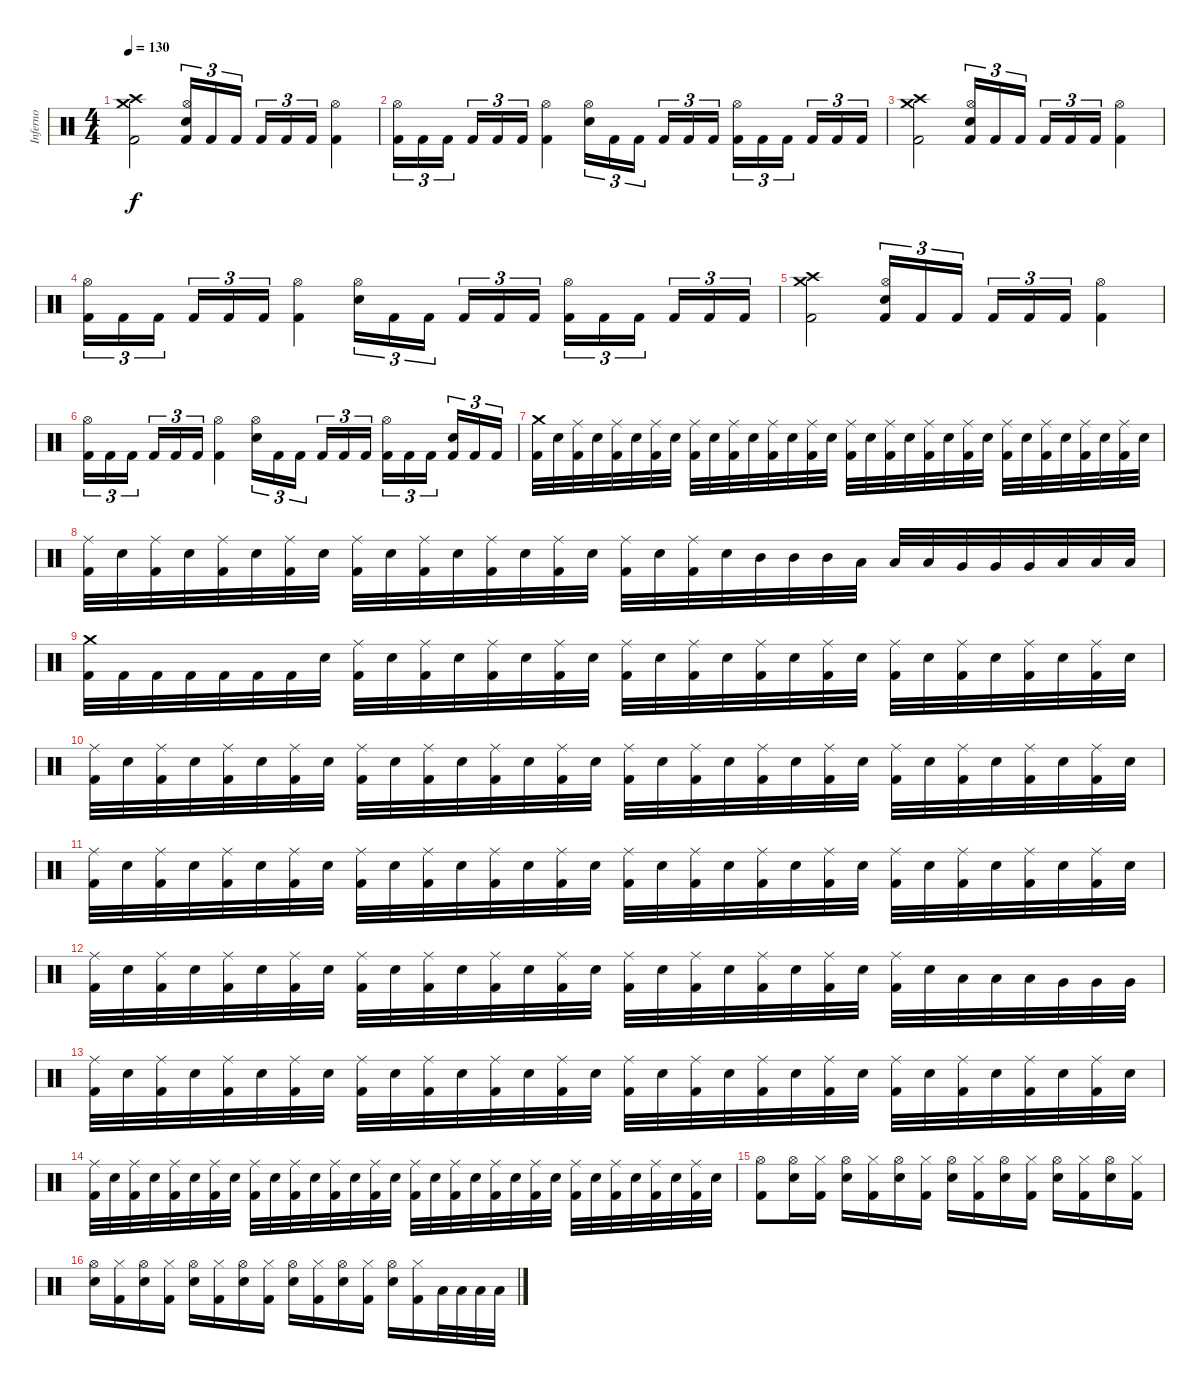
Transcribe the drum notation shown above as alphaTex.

\track ("Inferno" "Inferno") {instrument percussion}
\staff {score}
\articulation defaults
\ts (4 4)
\tempo 130
\clef neutral
\ks c
("Crash medium (hit)" "Crash high (hit)" "Kick (hit) 2").2{dy f} ("Hi-Hat (open)" "Snare (hit) 2" "Kick (hit) 2").16{tu (3 2)} "Kick (hit) 2".16{tu (3 2)} "Kick (hit) 2".16{tu (3 2) beam splitsecondary} "Kick (hit) 2".16{tu (3 2)} "Kick (hit) 2".16{tu (3 2)} "Kick (hit) 2".16{tu (3 2)} ("Hi-Hat (open)" "Kick (hit) 2").4 |
("Hi-Hat (open)" "Kick (hit) 2").16{tu (3 2)} "Kick (hit) 2".16{tu (3 2)} "Kick (hit) 2".16{tu (3 2) beam splitsecondary} "Kick (hit) 2".16{tu (3 2)} "Kick (hit) 2".16{tu (3 2)} "Kick (hit) 2".16{tu (3 2)} ("Hi-Hat (open)" "Kick (hit) 2").4 ("Hi-Hat (open)" "Snare (hit) 2").16{tu (3 2)} "Kick (hit) 2".16{tu (3 2)} "Kick (hit) 2".16{tu (3 2) beam splitsecondary} "Kick (hit) 2".16{tu (3 2)} "Kick (hit) 2".16{tu (3 2)} "Kick (hit) 2".16{tu (3 2)} ("Hi-Hat (open)" "Kick (hit) 2").16{tu (3 2)} "Kick (hit) 2".16{tu (3 2)} "Kick (hit) 2".16{tu (3 2) beam splitsecondary} "Kick (hit) 2".16{tu (3 2)} "Kick (hit) 2".16{tu (3 2)} "Kick (hit) 2".16{tu (3 2)} |
("Crash medium (hit)" "Crash high (hit)" "Kick (hit) 2").2 ("Hi-Hat (open)" "Snare (hit) 2" "Kick (hit) 2").16{tu (3 2)} "Kick (hit) 2".16{tu (3 2)} "Kick (hit) 2".16{tu (3 2) beam splitsecondary} "Kick (hit) 2".16{tu (3 2)} "Kick (hit) 2".16{tu (3 2)} "Kick (hit) 2".16{tu (3 2)} ("Hi-Hat (open)" "Kick (hit) 2").4 |
("Hi-Hat (open)" "Kick (hit) 2").16{tu (3 2)} "Kick (hit) 2".16{tu (3 2)} "Kick (hit) 2".16{tu (3 2) beam splitsecondary} "Kick (hit) 2".16{tu (3 2)} "Kick (hit) 2".16{tu (3 2)} "Kick (hit) 2".16{tu (3 2)} ("Hi-Hat (open)" "Kick (hit) 2").4 ("Hi-Hat (open)" "Snare (hit) 2").16{tu (3 2)} "Kick (hit) 2".16{tu (3 2)} "Kick (hit) 2".16{tu (3 2) beam splitsecondary} "Kick (hit) 2".16{tu (3 2)} "Kick (hit) 2".16{tu (3 2)} "Kick (hit) 2".16{tu (3 2)} ("Hi-Hat (open)" "Kick (hit) 2").16{tu (3 2)} "Kick (hit) 2".16{tu (3 2)} "Kick (hit) 2".16{tu (3 2) beam splitsecondary} "Kick (hit) 2".16{tu (3 2)} "Kick (hit) 2".16{tu (3 2)} "Kick (hit) 2".16{tu (3 2)} |
("Crash medium (hit)" "Crash high (hit)" "Kick (hit) 2").2 ("Hi-Hat (open)" "Snare (hit) 2" "Kick (hit) 2").16{tu (3 2)} "Kick (hit) 2".16{tu (3 2)} "Kick (hit) 2".16{tu (3 2) beam splitsecondary} "Kick (hit) 2".16{tu (3 2)} "Kick (hit) 2".16{tu (3 2)} "Kick (hit) 2".16{tu (3 2)} ("Hi-Hat (open)" "Kick (hit) 2").4 |
("Hi-Hat (open)" "Kick (hit) 2").16{tu (3 2)} "Kick (hit) 2".16{tu (3 2)} "Kick (hit) 2".16{tu (3 2) beam splitsecondary} "Kick (hit) 2".16{tu (3 2)} "Kick (hit) 2".16{tu (3 2)} "Kick (hit) 2".16{tu (3 2)} ("Hi-Hat (open)" "Kick (hit) 2").4 ("Hi-Hat (open)" "Snare (hit) 2").16{tu (3 2)} "Kick (hit) 2".16{tu (3 2)} "Kick (hit) 2".16{tu (3 2) beam splitsecondary} "Kick (hit) 2".16{tu (3 2)} "Kick (hit) 2".16{tu (3 2)} "Kick (hit) 2".16{tu (3 2)} ("Hi-Hat (open)" "Kick (hit) 2").16{tu (3 2)} "Kick (hit) 2".16{tu (3 2)} "Kick (hit) 2".16{tu (3 2) beam splitsecondary} ("Snare (hit) 2" "Kick (hit) 2").16{tu (3 2)} "Kick (hit) 2".16{tu (3 2)} "Kick (hit) 2".16{tu (3 2)} |
("Crash medium (hit)" "Kick (hit) 2").32 "Snare (hit) 2".32 ("Ride (middle)" "Kick (hit) 2").32 "Snare (hit) 2".32 ("Ride (middle)" "Kick (hit) 2").32 "Snare (hit) 2".32 ("Ride (middle)" "Kick (hit) 2").32 "Snare (hit) 2".32 ("Ride (middle)" "Kick (hit) 2").32 "Snare (hit) 2".32 ("Ride (middle)" "Kick (hit) 2").32 "Snare (hit) 2".32 ("Ride (middle)" "Kick (hit) 2").32 "Snare (hit) 2".32 ("Ride (middle)" "Kick (hit) 2").32 "Snare (hit) 2".32 ("Ride (middle)" "Kick (hit) 2").32 "Snare (hit) 2".32 ("Ride (middle)" "Kick (hit) 2").32 "Snare (hit) 2".32 ("Ride (middle)" "Kick (hit) 2").32 "Snare (hit) 2".32 ("Ride (middle)" "Kick (hit) 2").32 "Snare (hit) 2".32 ("Ride (middle)" "Kick (hit) 2").32 "Snare (hit) 2".32 ("Ride (middle)" "Kick (hit) 2").32 "Snare (hit) 2".32 ("Ride (middle)" "Kick (hit) 2").32 "Snare (hit) 2".32 ("Ride (middle)" "Kick (hit) 2").32 "Snare (hit) 2".32 |
("Ride (middle)" "Kick (hit) 2").32 "Snare (hit) 2".32 ("Ride (middle)" "Kick (hit) 2").32 "Snare (hit) 2".32 ("Ride (middle)" "Kick (hit) 2").32 "Snare (hit) 2".32 ("Ride (middle)" "Kick (hit) 2").32 "Snare (hit) 2".32 ("Ride (middle)" "Kick (hit) 2").32 "Snare (hit) 2".32 ("Ride (middle)" "Kick (hit) 2").32 "Snare (hit) 2".32 ("Ride (middle)" "Kick (hit) 2").32 "Snare (hit) 2".32 ("Ride (middle)" "Kick (hit) 2").32 "Snare (hit) 2".32 ("Ride (middle)" "Kick (hit) 2").32 "Snare (hit) 2".32 ("Ride (middle)" "Kick (hit) 2").32 "Snare (hit) 2".32 "Mid Tom (hit)".32 "Mid Tom (hit)".32 "Mid Tom (hit)".32 "Low Tom (hit)".32 "Low Tom (hit)".32 "Low Tom (hit)".32 "Very Low Tom (hit)".32 "Very Low Tom (hit)".32 "Very Low Tom (hit)".32 "Low Floor Tom (hit)".32 "Low Floor Tom (hit)".32 "Low Floor Tom (hit)".32 |
("Crash medium (hit)" "Kick (hit) 2").32 "Kick (hit) 2".32 "Kick (hit) 2".32 "Kick (hit) 2".32 "Kick (hit) 2".32 "Kick (hit) 2".32 "Kick (hit) 2".32 "Snare (hit) 2".32 ("Ride (middle)" "Kick (hit) 2").32 "Snare (hit) 2".32 ("Ride (middle)" "Kick (hit) 2").32 "Snare (hit) 2".32 ("Ride (middle)" "Kick (hit) 2").32 "Snare (hit) 2".32 ("Ride (middle)" "Kick (hit) 2").32 "Snare (hit) 2".32 ("Ride (middle)" "Kick (hit) 2").32 "Snare (hit) 2".32 ("Ride (middle)" "Kick (hit) 2").32 "Snare (hit) 2".32 ("Ride (middle)" "Kick (hit) 2").32 "Snare (hit) 2".32 ("Ride (middle)" "Kick (hit) 2").32 "Snare (hit) 2".32 ("Ride (middle)" "Kick (hit) 2").32 "Snare (hit) 2".32 ("Ride (middle)" "Kick (hit) 2").32 "Snare (hit) 2".32 ("Ride (middle)" "Kick (hit) 2").32 "Snare (hit) 2".32 ("Ride (middle)" "Kick (hit) 2").32 "Snare (hit) 2".32 |
("Ride (middle)" "Kick (hit) 2").32 "Snare (hit) 2".32 ("Ride (middle)" "Kick (hit) 2").32 "Snare (hit) 2".32 ("Ride (middle)" "Kick (hit) 2").32 "Snare (hit) 2".32 ("Ride (middle)" "Kick (hit) 2").32 "Snare (hit) 2".32 ("Ride (middle)" "Kick (hit) 2").32 "Snare (hit) 2".32 ("Ride (middle)" "Kick (hit) 2").32 "Snare (hit) 2".32 ("Ride (middle)" "Kick (hit) 2").32 "Snare (hit) 2".32 ("Ride (middle)" "Kick (hit) 2").32 "Snare (hit) 2".32 ("Ride (middle)" "Kick (hit) 2").32 "Snare (hit) 2".32 ("Ride (middle)" "Kick (hit) 2").32 "Snare (hit) 2".32 ("Ride (middle)" "Kick (hit) 2").32 "Snare (hit) 2".32 ("Ride (middle)" "Kick (hit) 2").32 "Snare (hit) 2".32 ("Ride (middle)" "Kick (hit) 2").32 "Snare (hit) 2".32 ("Ride (middle)" "Kick (hit) 2").32 "Snare (hit) 2".32 ("Ride (middle)" "Kick (hit) 2").32 "Snare (hit) 2".32 ("Ride (middle)" "Kick (hit) 2").32 "Snare (hit) 2".32 |
("Ride (middle)" "Kick (hit) 2").32 "Snare (hit) 2".32 ("Ride (middle)" "Kick (hit) 2").32 "Snare (hit) 2".32 ("Ride (middle)" "Kick (hit) 2").32 "Snare (hit) 2".32 ("Ride (middle)" "Kick (hit) 2").32 "Snare (hit) 2".32 ("Ride (middle)" "Kick (hit) 2").32 "Snare (hit) 2".32 ("Ride (middle)" "Kick (hit) 2").32 "Snare (hit) 2".32 ("Ride (middle)" "Kick (hit) 2").32 "Snare (hit) 2".32 ("Ride (middle)" "Kick (hit) 2").32 "Snare (hit) 2".32 ("Ride (middle)" "Kick (hit) 2").32 "Snare (hit) 2".32 ("Ride (middle)" "Kick (hit) 2").32 "Snare (hit) 2".32 ("Ride (middle)" "Kick (hit) 2").32 "Snare (hit) 2".32 ("Ride (middle)" "Kick (hit) 2").32 "Snare (hit) 2".32 ("Ride (middle)" "Kick (hit) 2").32 "Snare (hit) 2".32 ("Ride (middle)" "Kick (hit) 2").32 "Snare (hit) 2".32 ("Ride (middle)" "Kick (hit) 2").32 "Snare (hit) 2".32 ("Ride (middle)" "Kick (hit) 2").32 "Snare (hit) 2".32 |
("Ride (middle)" "Kick (hit) 2").32 "Snare (hit) 2".32 ("Ride (middle)" "Kick (hit) 2").32 "Snare (hit) 2".32 ("Ride (middle)" "Kick (hit) 2").32 "Snare (hit) 2".32 ("Ride (middle)" "Kick (hit) 2").32 "Snare (hit) 2".32 ("Ride (middle)" "Kick (hit) 2").32 "Snare (hit) 2".32 ("Ride (middle)" "Kick (hit) 2").32 "Snare (hit) 2".32 ("Ride (middle)" "Kick (hit) 2").32 "Snare (hit) 2".32 ("Ride (middle)" "Kick (hit) 2").32 "Snare (hit) 2".32 ("Ride (middle)" "Kick (hit) 2").32 "Snare (hit) 2".32 ("Ride (middle)" "Kick (hit) 2").32 "Snare (hit) 2".32 ("Ride (middle)" "Kick (hit) 2").32 "Snare (hit) 2".32 ("Ride (middle)" "Kick (hit) 2").32 "Snare (hit) 2".32 ("Ride (middle)" "Kick (hit) 2").32 "Snare (hit) 2".32 "Low Tom (hit)".32 "Low Tom (hit)".32 "Low Tom (hit)".32 "Very Low Tom (hit)".32 "Very Low Tom (hit)".32 "Very Low Tom (hit)".32 |
("Ride (middle)" "Kick (hit) 2").32 "Snare (hit) 2".32 ("Ride (middle)" "Kick (hit) 2").32 "Snare (hit) 2".32 ("Ride (middle)" "Kick (hit) 2").32 "Snare (hit) 2".32 ("Ride (middle)" "Kick (hit) 2").32 "Snare (hit) 2".32 ("Ride (middle)" "Kick (hit) 2").32 "Snare (hit) 2".32 ("Ride (middle)" "Kick (hit) 2").32 "Snare (hit) 2".32 ("Ride (middle)" "Kick (hit) 2").32 "Snare (hit) 2".32 ("Ride (middle)" "Kick (hit) 2").32 "Snare (hit) 2".32 ("Ride (middle)" "Kick (hit) 2").32 "Snare (hit) 2".32 ("Ride (middle)" "Kick (hit) 2").32 "Snare (hit) 2".32 ("Ride (middle)" "Kick (hit) 2").32 "Snare (hit) 2".32 ("Ride (middle)" "Kick (hit) 2").32 "Snare (hit) 2".32 ("Ride (middle)" "Kick (hit) 2").32 "Snare (hit) 2".32 ("Ride (middle)" "Kick (hit) 2").32 "Snare (hit) 2".32 ("Ride (middle)" "Kick (hit) 2").32 "Snare (hit) 2".32 ("Ride (middle)" "Kick (hit) 2").32 "Snare (hit) 2".32 |
("Ride (middle)" "Kick (hit) 2").32 "Snare (hit) 2".32 ("Ride (middle)" "Kick (hit) 2").32 "Snare (hit) 2".32 ("Ride (middle)" "Kick (hit) 2").32 "Snare (hit) 2".32 ("Ride (middle)" "Kick (hit) 2").32 "Snare (hit) 2".32 ("Ride (middle)" "Kick (hit) 2").32 "Snare (hit) 2".32 ("Ride (middle)" "Kick (hit) 2").32 "Snare (hit) 2".32 ("Ride (middle)" "Kick (hit) 2").32 "Snare (hit) 2".32 ("Ride (middle)" "Kick (hit) 2").32 "Snare (hit) 2".32 ("Ride (middle)" "Kick (hit) 2").32 "Snare (hit) 2".32 ("Ride (middle)" "Kick (hit) 2").32 "Snare (hit) 2".32 ("Ride (middle)" "Kick (hit) 2").32 "Snare (hit) 2".32 ("Ride (middle)" "Kick (hit) 2").32 "Snare (hit) 2".32 ("Ride (middle)" "Kick (hit) 2").32 "Snare (hit) 2".32 ("Ride (middle)" "Kick (hit) 2").32 "Snare (hit) 2".32 ("Ride (middle)" "Kick (hit) 2").32 "Snare (hit) 2".32 ("Ride (middle)" "Kick (hit) 2").32 "Snare (hit) 2".32 |
("Hi-Hat (open)" "Kick (hit) 2").8 ("Hi-Hat (open)" "Snare (hit) 2").16 ("Hi-Hat (closed)" "Kick (hit) 2").16 ("Hi-Hat (open)" "Snare (hit) 2").16 ("Hi-Hat (closed)" "Kick (hit) 2").16 ("Hi-Hat (open)" "Snare (hit) 2").16 ("Hi-Hat (closed)" "Kick (hit) 2").16 ("Hi-Hat (open)" "Snare (hit) 2").16 ("Hi-Hat (closed)" "Kick (hit) 2").16 ("Hi-Hat (open)" "Snare (hit) 2").16 ("Hi-Hat (closed)" "Kick (hit) 2").16 ("Hi-Hat (open)" "Snare (hit) 2").16 ("Hi-Hat (closed)" "Kick (hit) 2").16 ("Hi-Hat (open)" "Snare (hit) 2").16 ("Hi-Hat (closed)" "Kick (hit) 2").16 |
("Hi-Hat (open)" "Snare (hit) 2").16 ("Hi-Hat (closed)" "Kick (hit) 2").16 ("Hi-Hat (open)" "Snare (hit) 2").16 ("Hi-Hat (closed)" "Kick (hit) 2").16 ("Hi-Hat (open)" "Snare (hit) 2").16 ("Hi-Hat (closed)" "Kick (hit) 2").16 ("Hi-Hat (open)" "Snare (hit) 2").16 ("Hi-Hat (closed)" "Kick (hit) 2").16 ("Hi-Hat (open)" "Snare (hit) 2").16 ("Hi-Hat (closed)" "Kick (hit) 2").16 ("Hi-Hat (open)" "Snare (hit) 2").16 ("Hi-Hat (closed)" "Kick (hit) 2").16 ("Hi-Hat (open)" "Snare (hit) 2").16 ("Hi-Hat (closed)" "Kick (hit) 2").16 "Low Floor Tom (hit)".32 "Low Floor Tom (hit)".32 "Low Floor Tom (hit)".32 "Low Floor Tom (hit)".32
